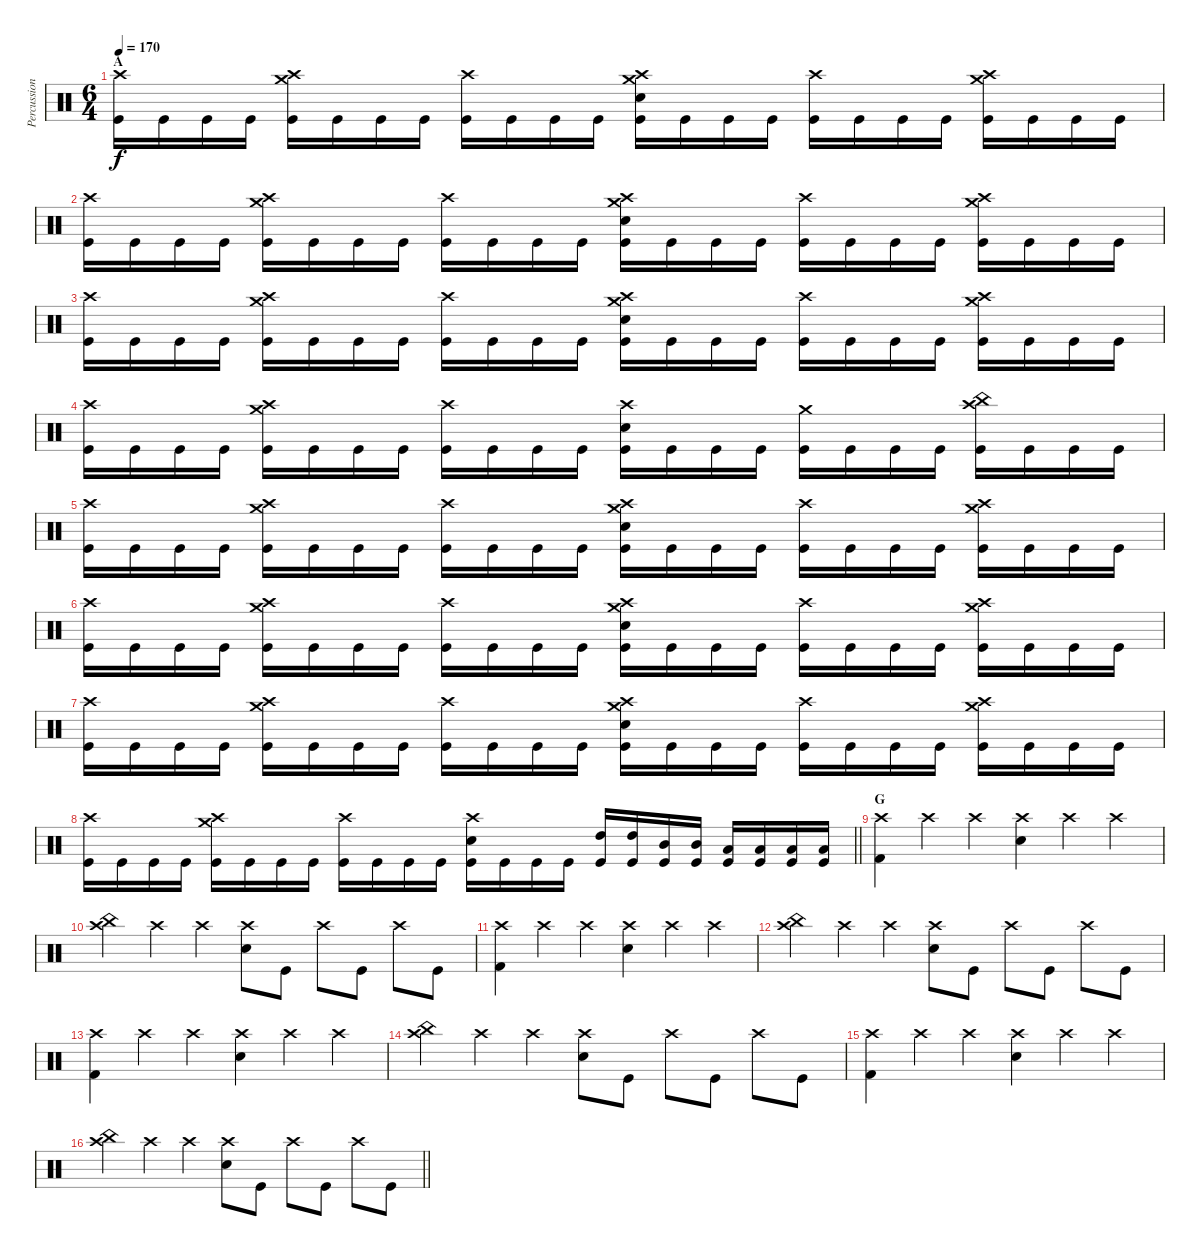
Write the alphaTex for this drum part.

\track ("Percussions" "Percussion") {instrument percussion}
\staff {score}
\articulation defaults
\ts (6 4)
\section ("" "A")
\tempo 170
\clef neutral
\ks c
("Crash high (hit)" "Kick (hit)").16{dy f} "Kick (hit)".16 "Kick (hit)".16 "Kick (hit)".16 ("Crash high (hit)" "Crash medium (hit)" "Kick (hit)").16 "Kick (hit)".16 "Kick (hit)".16 "Kick (hit)".16 ("Crash high (hit)" "Kick (hit)").16 "Kick (hit)".16 "Kick (hit)".16 "Kick (hit)".16 ("Crash high (hit)" "Crash medium (hit)" "Snare (hit) 2" "Kick (hit)").16 "Kick (hit)".16 "Kick (hit)".16 "Kick (hit)".16 ("Crash high (hit)" "Kick (hit)").16 "Kick (hit)".16 "Kick (hit)".16 "Kick (hit)".16 ("Crash high (hit)" "Crash medium (hit)" "Kick (hit)").16 "Kick (hit)".16 "Kick (hit)".16 "Kick (hit)".16 |
("Crash high (hit)" "Kick (hit)").16 "Kick (hit)".16 "Kick (hit)".16 "Kick (hit)".16 ("Crash high (hit)" "Crash medium (hit)" "Kick (hit)").16 "Kick (hit)".16 "Kick (hit)".16 "Kick (hit)".16 ("Crash high (hit)" "Kick (hit)").16 "Kick (hit)".16 "Kick (hit)".16 "Kick (hit)".16 ("Crash high (hit)" "Crash medium (hit)" "Snare (hit) 2" "Kick (hit)").16 "Kick (hit)".16 "Kick (hit)".16 "Kick (hit)".16 ("Crash high (hit)" "Kick (hit)").16 "Kick (hit)".16 "Kick (hit)".16 "Kick (hit)".16 ("Crash high (hit)" "Crash medium (hit)" "Kick (hit)").16 "Kick (hit)".16 "Kick (hit)".16 "Kick (hit)".16 |
("Crash high (hit)" "Kick (hit)").16 "Kick (hit)".16 "Kick (hit)".16 "Kick (hit)".16 ("Crash high (hit)" "Crash medium (hit)" "Kick (hit)").16 "Kick (hit)".16 "Kick (hit)".16 "Kick (hit)".16 ("Crash high (hit)" "Kick (hit)").16 "Kick (hit)".16 "Kick (hit)".16 "Kick (hit)".16 ("Crash high (hit)" "Crash medium (hit)" "Snare (hit) 2" "Kick (hit)").16 "Kick (hit)".16 "Kick (hit)".16 "Kick (hit)".16 ("Crash high (hit)" "Kick (hit)").16 "Kick (hit)".16 "Kick (hit)".16 "Kick (hit)".16 ("Crash high (hit)" "Crash medium (hit)" "Kick (hit)").16 "Kick (hit)".16 "Kick (hit)".16 "Kick (hit)".16 |
("Crash high (hit)" "Kick (hit)").16 "Kick (hit)".16 "Kick (hit)".16 "Kick (hit)".16 ("Crash high (hit)" "Crash medium (hit)" "Kick (hit)").16 "Kick (hit)".16 "Kick (hit)".16 "Kick (hit)".16 ("Crash high (hit)" "Kick (hit)").16 "Kick (hit)".16 "Kick (hit)".16 "Kick (hit)".16 ("Crash high (hit)" "Snare (hit) 2" "Kick (hit)").16 "Kick (hit)".16 "Kick (hit)".16 "Kick (hit)".16 ("Crash medium (hit)" "Kick (hit)").16 "Kick (hit)".16 "Kick (hit)".16 "Kick (hit)".16 ("Crash high (hit)" "China (hit)" "Kick (hit)").16 "Kick (hit)".16 "Kick (hit)".16 "Kick (hit)".16 |
("Crash high (hit)" "Kick (hit)").16 "Kick (hit)".16 "Kick (hit)".16 "Kick (hit)".16 ("Crash high (hit)" "Crash medium (hit)" "Kick (hit)").16 "Kick (hit)".16 "Kick (hit)".16 "Kick (hit)".16 ("Crash high (hit)" "Kick (hit)").16 "Kick (hit)".16 "Kick (hit)".16 "Kick (hit)".16 ("Crash high (hit)" "Crash medium (hit)" "Snare (hit) 2" "Kick (hit)").16 "Kick (hit)".16 "Kick (hit)".16 "Kick (hit)".16 ("Crash high (hit)" "Kick (hit)").16 "Kick (hit)".16 "Kick (hit)".16 "Kick (hit)".16 ("Crash high (hit)" "Crash medium (hit)" "Kick (hit)").16 "Kick (hit)".16 "Kick (hit)".16 "Kick (hit)".16 |
("Crash high (hit)" "Kick (hit)").16 "Kick (hit)".16 "Kick (hit)".16 "Kick (hit)".16 ("Crash high (hit)" "Crash medium (hit)" "Kick (hit)").16 "Kick (hit)".16 "Kick (hit)".16 "Kick (hit)".16 ("Crash high (hit)" "Kick (hit)").16 "Kick (hit)".16 "Kick (hit)".16 "Kick (hit)".16 ("Crash high (hit)" "Crash medium (hit)" "Snare (hit) 2" "Kick (hit)").16 "Kick (hit)".16 "Kick (hit)".16 "Kick (hit)".16 ("Crash high (hit)" "Kick (hit)").16 "Kick (hit)".16 "Kick (hit)".16 "Kick (hit)".16 ("Crash high (hit)" "Crash medium (hit)" "Kick (hit)").16 "Kick (hit)".16 "Kick (hit)".16 "Kick (hit)".16 |
("Crash high (hit)" "Kick (hit)").16 "Kick (hit)".16 "Kick (hit)".16 "Kick (hit)".16 ("Crash high (hit)" "Crash medium (hit)" "Kick (hit)").16 "Kick (hit)".16 "Kick (hit)".16 "Kick (hit)".16 ("Crash high (hit)" "Kick (hit)").16 "Kick (hit)".16 "Kick (hit)".16 "Kick (hit)".16 ("Crash high (hit)" "Crash medium (hit)" "Snare (hit) 2" "Kick (hit)").16 "Kick (hit)".16 "Kick (hit)".16 "Kick (hit)".16 ("Crash high (hit)" "Kick (hit)").16 "Kick (hit)".16 "Kick (hit)".16 "Kick (hit)".16 ("Crash high (hit)" "Crash medium (hit)" "Kick (hit)").16 "Kick (hit)".16 "Kick (hit)".16 "Kick (hit)".16 |
\barLineRight lightlight
("Crash high (hit)" "Kick (hit)").16 "Kick (hit)".16 "Kick (hit)".16 "Kick (hit)".16 ("Crash high (hit)" "Crash medium (hit)" "Kick (hit)").16 "Kick (hit)".16 "Kick (hit)".16 "Kick (hit)".16 ("Crash high (hit)" "Kick (hit)").16 "Kick (hit)".16 "Kick (hit)".16 "Kick (hit)".16 ("Crash high (hit)" "Snare (hit) 2" "Kick (hit)").16 "Kick (hit)".16 "Kick (hit)".16 "Kick (hit)".16 ("High Tom (hit)" "Kick (hit)").16 ("High Tom (hit)" "Kick (hit)").16 ("Mid Tom (hit)" "Kick (hit)").16 ("Mid Tom (hit)" "Kick (hit)").16 ("Low Tom (hit)" "Kick (hit)").16 ("Low Tom (hit)" "Kick (hit)").16 ("Low Floor Tom (hit)" "Kick (hit)").16 ("Low Floor Tom (hit)" "Kick (hit)").16 |
\section ("" "G")
("Crash high (hit)" "Kick (hit) 2").4 "Crash high (hit)".4 "Crash high (hit)".4 ("Crash high (hit)" "Snare (hit) 2").4 "Crash high (hit)".4 "Crash high (hit)".4 |
("China (hit)" "Crash high (hit)").4 "Crash high (hit)".4 "Crash high (hit)".4 ("Crash high (hit)" "Snare (hit) 2").8 "Kick (hit)".8 "Crash high (hit)".8 "Kick (hit)".8 "Crash high (hit)".8 "Kick (hit)".8 |
("Crash high (hit)" "Kick (hit) 2").4 "Crash high (hit)".4 "Crash high (hit)".4 ("Crash high (hit)" "Snare (hit) 2").4 "Crash high (hit)".4 "Crash high (hit)".4 |
("China (hit)" "Crash high (hit)").4 "Crash high (hit)".4 "Crash high (hit)".4 ("Crash high (hit)" "Snare (hit) 2").8 "Kick (hit)".8 "Crash high (hit)".8 "Kick (hit)".8 "Crash high (hit)".8 "Kick (hit)".8 |
("Crash high (hit)" "Kick (hit) 2").4 "Crash high (hit)".4 "Crash high (hit)".4 ("Crash high (hit)" "Snare (hit) 2").4 "Crash high (hit)".4 "Crash high (hit)".4 |
("China (hit)" "Crash high (hit)").4 "Crash high (hit)".4 "Crash high (hit)".4 ("Crash high (hit)" "Snare (hit) 2").8 "Kick (hit)".8 "Crash high (hit)".8 "Kick (hit)".8 "Crash high (hit)".8 "Kick (hit)".8 |
("Crash high (hit)" "Kick (hit) 2").4 "Crash high (hit)".4 "Crash high (hit)".4 ("Crash high (hit)" "Snare (hit) 2").4 "Crash high (hit)".4 "Crash high (hit)".4 |
\barLineRight lightlight
("China (hit)" "Crash high (hit)").4 "Crash high (hit)".4 "Crash high (hit)".4 ("Crash high (hit)" "Snare (hit) 2").8 "Kick (hit)".8 "Crash high (hit)".8 "Kick (hit)".8 "Crash high (hit)".8 "Kick (hit)".8
